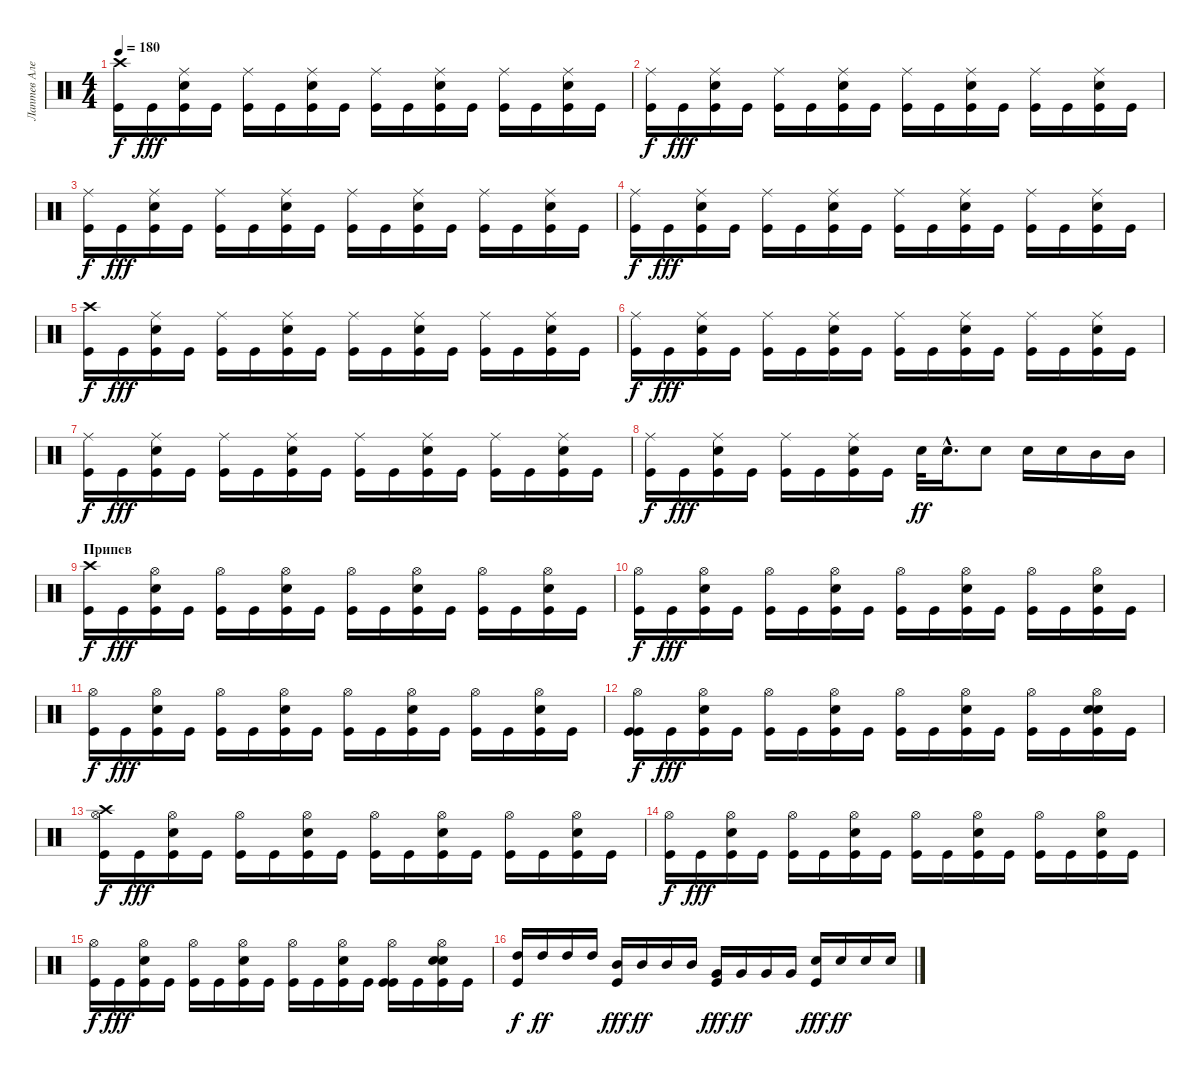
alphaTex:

\track ("Лаптев Алексей" "Лаптев Але") {instrument percussion}
\staff {score}
\articulation defaults
\ts (4 4)
\tempo 180
\clef neutral
\ks c
("Crash high (hit)" "Kick (hit)").16{dy f} "Kick (hit)".16{dy fff} ("Ride (middle)" "Snare (hit) 2" "Kick (hit)").16 "Kick (hit)".16 ("Ride (middle)" "Kick (hit)").16 "Kick (hit)".16 ("Ride (middle)" "Snare (hit) 2" "Kick (hit)").16 "Kick (hit)".16 ("Ride (middle)" "Kick (hit)").16 "Kick (hit)".16 ("Ride (middle)" "Snare (hit) 2" "Kick (hit)").16 "Kick (hit)".16 ("Ride (middle)" "Kick (hit)").16 "Kick (hit)".16 ("Ride (middle)" "Snare (hit) 2" "Kick (hit)").16 "Kick (hit)".16 |
("Ride (middle)" "Kick (hit)").16{dy f} "Kick (hit)".16{dy fff} ("Ride (middle)" "Snare (hit) 2" "Kick (hit)").16 "Kick (hit)".16 ("Ride (middle)" "Kick (hit)").16 "Kick (hit)".16 ("Ride (middle)" "Snare (hit) 2" "Kick (hit)").16 "Kick (hit)".16 ("Ride (middle)" "Kick (hit)").16 "Kick (hit)".16 ("Ride (middle)" "Snare (hit) 2" "Kick (hit)").16 "Kick (hit)".16 ("Ride (middle)" "Kick (hit)").16 "Kick (hit)".16 ("Ride (middle)" "Snare (hit) 2" "Kick (hit)").16 "Kick (hit)".16 |
("Ride (middle)" "Kick (hit)").16{dy f} "Kick (hit)".16{dy fff} ("Ride (middle)" "Snare (hit) 2" "Kick (hit)").16 "Kick (hit)".16 ("Ride (middle)" "Kick (hit)").16 "Kick (hit)".16 ("Ride (middle)" "Snare (hit) 2" "Kick (hit)").16 "Kick (hit)".16 ("Ride (middle)" "Kick (hit)").16 "Kick (hit)".16 ("Ride (middle)" "Snare (hit) 2" "Kick (hit)").16 "Kick (hit)".16 ("Ride (middle)" "Kick (hit)").16 "Kick (hit)".16 ("Ride (middle)" "Snare (hit) 2" "Kick (hit)").16 "Kick (hit)".16 |
("Ride (middle)" "Kick (hit)").16{dy f} "Kick (hit)".16{dy fff} ("Ride (middle)" "Snare (hit) 2" "Kick (hit)").16 "Kick (hit)".16 ("Ride (middle)" "Kick (hit)").16 "Kick (hit)".16 ("Ride (middle)" "Snare (hit) 2" "Kick (hit)").16 "Kick (hit)".16 ("Ride (middle)" "Kick (hit)").16 "Kick (hit)".16 ("Ride (middle)" "Snare (hit) 2" "Kick (hit)").16 "Kick (hit)".16 ("Ride (middle)" "Kick (hit)").16 "Kick (hit)".16 ("Ride (middle)" "Snare (hit) 2" "Kick (hit)").16 "Kick (hit)".16 |
("Crash high (hit)" "Kick (hit)").16{dy f} "Kick (hit)".16{dy fff} ("Ride (middle)" "Snare (hit) 2" "Kick (hit)").16 "Kick (hit)".16 ("Ride (middle)" "Kick (hit)").16 "Kick (hit)".16 ("Ride (middle)" "Snare (hit) 2" "Kick (hit)").16 "Kick (hit)".16 ("Ride (middle)" "Kick (hit)").16 "Kick (hit)".16 ("Ride (middle)" "Snare (hit) 2" "Kick (hit)").16 "Kick (hit)".16 ("Ride (middle)" "Kick (hit)").16 "Kick (hit)".16 ("Ride (middle)" "Snare (hit) 2" "Kick (hit)").16 "Kick (hit)".16 |
("Ride (middle)" "Kick (hit)").16{dy f} "Kick (hit)".16{dy fff} ("Ride (middle)" "Snare (hit) 2" "Kick (hit)").16 "Kick (hit)".16 ("Ride (middle)" "Kick (hit)").16 "Kick (hit)".16 ("Ride (middle)" "Snare (hit) 2" "Kick (hit)").16 "Kick (hit)".16 ("Ride (middle)" "Kick (hit)").16 "Kick (hit)".16 ("Ride (middle)" "Snare (hit) 2" "Kick (hit)").16 "Kick (hit)".16 ("Ride (middle)" "Kick (hit)").16 "Kick (hit)".16 ("Ride (middle)" "Snare (hit) 2" "Kick (hit)").16 "Kick (hit)".16 |
("Ride (middle)" "Kick (hit)").16{dy f} "Kick (hit)".16{dy fff} ("Ride (middle)" "Snare (hit) 2" "Kick (hit)").16 "Kick (hit)".16 ("Ride (middle)" "Kick (hit)").16 "Kick (hit)".16 ("Ride (middle)" "Snare (hit) 2" "Kick (hit)").16 "Kick (hit)".16 ("Ride (middle)" "Kick (hit)").16 "Kick (hit)".16 ("Ride (middle)" "Snare (hit) 2" "Kick (hit)").16 "Kick (hit)".16 ("Ride (middle)" "Kick (hit)").16 "Kick (hit)".16 ("Ride (middle)" "Snare (hit) 2" "Kick (hit)").16 "Kick (hit)".16 |
("Ride (middle)" "Kick (hit)").16{dy f} "Kick (hit)".16{dy fff} ("Ride (middle)" "Snare (hit) 2" "Kick (hit)").16 "Kick (hit)".16 ("Ride (middle)" "Kick (hit)").16 "Kick (hit)".16 ("Ride (middle)" "Snare (hit) 2" "Kick (hit)").16 "Kick (hit)".16 "Snare (hit) 2".32{dy ff} "Snare (hit) 2"{hac}.16{d} "Snare (hit) 2".8 "Snare (hit) 2".16 "Snare (hit) 2".16 "Mid Tom (hit)".16 "Mid Tom (hit)".16 |
\section ("" "Припев")
("Crash high (hit)" "Kick (hit)").16{dy f} "Kick (hit)".16{dy fff} ("Hi-Hat (open)" "Snare (hit) 2" "Kick (hit)").16 "Kick (hit)".16 ("Hi-Hat (open)" "Kick (hit)").16 "Kick (hit)".16 ("Snare (hit) 2" "Hi-Hat (open)" "Kick (hit)").16 "Kick (hit)".16 ("Hi-Hat (open)" "Kick (hit)").16 "Kick (hit)".16 ("Hi-Hat (open)" "Snare (hit) 2" "Kick (hit)").16 "Kick (hit)".16 ("Hi-Hat (open)" "Kick (hit)").16 "Kick (hit)".16 ("Hi-Hat (open)" "Snare (hit) 2" "Kick (hit)").16 "Kick (hit)".16 |
("Hi-Hat (open)" "Kick (hit)").16{dy f} "Kick (hit)".16{dy fff} ("Hi-Hat (open)" "Snare (hit) 2" "Kick (hit)").16 "Kick (hit)".16 ("Hi-Hat (open)" "Kick (hit)").16 "Kick (hit)".16 ("Snare (hit) 2" "Hi-Hat (open)" "Kick (hit)").16 "Kick (hit)".16 ("Hi-Hat (open)" "Kick (hit)").16 "Kick (hit)".16 ("Hi-Hat (open)" "Snare (hit) 2" "Kick (hit)").16 "Kick (hit)".16 ("Hi-Hat (open)" "Kick (hit)").16 "Kick (hit)".16 ("Hi-Hat (open)" "Snare (hit) 2" "Kick (hit)").16 "Kick (hit)".16 |
("Hi-Hat (open)" "Kick (hit)").16{dy f} "Kick (hit)".16{dy fff} ("Hi-Hat (open)" "Snare (hit) 2" "Kick (hit)").16 "Kick (hit)".16 ("Hi-Hat (open)" "Kick (hit)").16 "Kick (hit)".16 ("Snare (hit) 2" "Hi-Hat (open)" "Kick (hit)").16 "Kick (hit)".16 ("Hi-Hat (open)" "Kick (hit)").16 "Kick (hit)".16 ("Hi-Hat (open)" "Snare (hit) 2" "Kick (hit)").16 "Kick (hit)".16 ("Hi-Hat (open)" "Kick (hit)").16 "Kick (hit)".16 ("Hi-Hat (open)" "Snare (hit) 2" "Kick (hit)").16 "Kick (hit)".16 |
("Hi-Hat (open)" "Kick (hit)" "Kick (hit)").16{dy f} "Kick (hit)".16{dy fff} ("Hi-Hat (open)" "Snare (hit) 2" "Kick (hit)").16 "Kick (hit)".16 ("Hi-Hat (open)" "Kick (hit)").16 "Kick (hit)".16 ("Snare (hit) 2" "Hi-Hat (open)" "Kick (hit)").16 "Kick (hit)".16 ("Hi-Hat (open)" "Kick (hit)").16 "Kick (hit)".16 ("Hi-Hat (open)" "Snare (hit) 2" "Kick (hit)").16 "Kick (hit)".16 ("Hi-Hat (open)" "Kick (hit)").16 "Kick (hit)".16 ("Snare (hit) 2" "Hi-Hat (open)" "Snare (hit) 2" "Kick (hit)").16 "Kick (hit)".16 |
("Crash high (hit)" "Kick (hit)" "Hi-Hat (open)").16{dy f} "Kick (hit)".16{dy fff} ("Hi-Hat (open)" "Snare (hit) 2" "Kick (hit)").16 "Kick (hit)".16 ("Hi-Hat (open)" "Kick (hit)").16 "Kick (hit)".16 ("Snare (hit) 2" "Hi-Hat (open)" "Kick (hit)").16 "Kick (hit)".16 ("Hi-Hat (open)" "Kick (hit)").16 "Kick (hit)".16 ("Hi-Hat (open)" "Snare (hit) 2" "Kick (hit)").16 "Kick (hit)".16 ("Hi-Hat (open)" "Kick (hit)").16 "Kick (hit)".16 ("Hi-Hat (open)" "Snare (hit) 2" "Kick (hit)").16 "Kick (hit)".16 |
("Hi-Hat (open)" "Kick (hit)").16{dy f} "Kick (hit)".16{dy fff} ("Hi-Hat (open)" "Snare (hit) 2" "Kick (hit)").16 "Kick (hit)".16 ("Hi-Hat (open)" "Kick (hit)").16 "Kick (hit)".16 ("Snare (hit) 2" "Hi-Hat (open)" "Kick (hit)").16 "Kick (hit)".16 ("Hi-Hat (open)" "Kick (hit)").16 "Kick (hit)".16 ("Hi-Hat (open)" "Snare (hit) 2" "Kick (hit)").16 "Kick (hit)".16 ("Hi-Hat (open)" "Kick (hit)").16 "Kick (hit)".16 ("Hi-Hat (open)" "Snare (hit) 2" "Kick (hit)").16 "Kick (hit)".16 |
("Hi-Hat (open)" "Kick (hit)").16{dy f} "Kick (hit)".16{dy fff} ("Hi-Hat (open)" "Snare (hit) 2" "Kick (hit)").16 "Kick (hit)".16 ("Hi-Hat (open)" "Kick (hit)").16 "Kick (hit)".16 ("Snare (hit) 2" "Hi-Hat (open)" "Kick (hit)").16 "Kick (hit)".16 ("Hi-Hat (open)" "Kick (hit)").16 "Kick (hit)".16 ("Hi-Hat (open)" "Snare (hit) 2" "Kick (hit)").16 "Kick (hit)".16 ("Hi-Hat (open)" "Kick (hit)" "Kick (hit)").16 "Kick (hit)".16 ("Snare (hit) 2" "Hi-Hat (open)" "Snare (hit) 2" "Kick (hit)").16 "Kick (hit)".16 |
("High Tom (hit)" "Kick (hit)").16{dy f} "High Tom (hit)".16{dy ff} "High Tom (hit)".16 "High Tom (hit)".16 ("Mid Tom (hit)" "Kick (hit)").16{dy fff} "Mid Tom (hit)".16{dy ff} "Mid Tom (hit)".16 "Mid Tom (hit)".16 ("Very Low Tom (hit)" "Kick (hit)").16{dy fff} "Very Low Tom (hit)".16{dy ff} "Very Low Tom (hit)".16 "Very Low Tom (hit)".16 ("Electric Snare (hit)" "Kick (hit)").16{dy fff} "Electric Snare (hit)".16{dy ff} "Electric Snare (hit)".16 "Electric Snare (hit)".16
